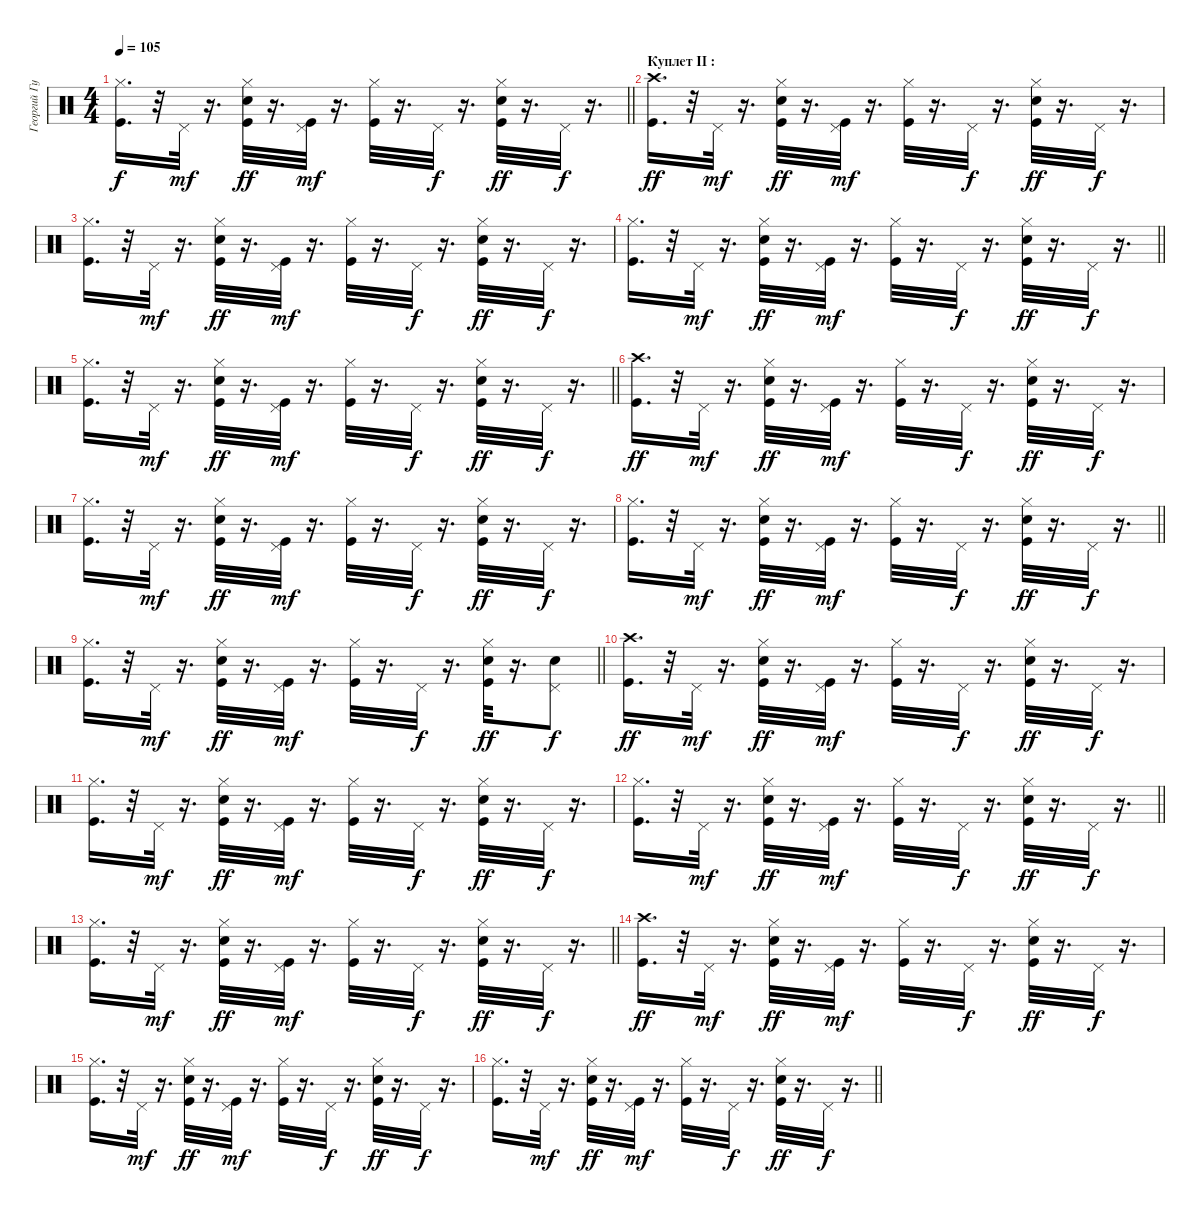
\track ("Георгий Гурьянов" "Георгий Гу") {instrument percussion}
\staff {score}
\articulation defaults
\ts (4 4)
\tempo 105
\clef neutral
\barLineRight lightlight
\ks c
("Hi-Hat (closed)" "Kick (hit)").16{d dy f} r.32 "Pedal Hi-Hat (hit)".32{dy mf} r.16{d} ("Hi-Hat (closed)" "Snare (hit) 2" "Kick (hit)").32{dy ff} r.16{d} ("Pedal Hi-Hat (hit)" "Kick (hit)").32{dy mf} r.16{d} ("Hi-Hat (closed)" "Kick (hit)").32 r.16{d} "Pedal Hi-Hat (hit)".32{dy f} r.16{d} ("Hi-Hat (closed)" "Snare (hit) 2" "Kick (hit)").32{dy ff} r.16{d} "Pedal Hi-Hat (hit)".32{dy f} r.16{d} |
\section ("" "Куплет II :")
("Crash high (hit)" "Kick (hit)").16{d dy ff} r.32 "Pedal Hi-Hat (hit)".32{dy mf} r.16{d} ("Hi-Hat (closed)" "Snare (hit) 2" "Kick (hit)").32{dy ff} r.16{d} ("Pedal Hi-Hat (hit)" "Kick (hit)").32{dy mf} r.16{d} ("Hi-Hat (closed)" "Kick (hit)").32 r.16{d} "Pedal Hi-Hat (hit)".32{dy f} r.16{d} ("Hi-Hat (closed)" "Snare (hit) 2" "Kick (hit)").32{dy ff} r.16{d} "Pedal Hi-Hat (hit)".32{dy f} r.16{d} |
("Hi-Hat (closed)" "Kick (hit)").16{d} r.32 "Pedal Hi-Hat (hit)".32{dy mf} r.16{d} ("Hi-Hat (closed)" "Snare (hit) 2" "Kick (hit)").32{dy ff} r.16{d} ("Pedal Hi-Hat (hit)" "Kick (hit)").32{dy mf} r.16{d} ("Hi-Hat (closed)" "Kick (hit)").32 r.16{d} "Pedal Hi-Hat (hit)".32{dy f} r.16{d} ("Hi-Hat (closed)" "Snare (hit) 2" "Kick (hit)").32{dy ff} r.16{d} "Pedal Hi-Hat (hit)".32{dy f} r.16{d} |
\barLineRight lightlight
("Hi-Hat (closed)" "Kick (hit)").16{d} r.32 "Pedal Hi-Hat (hit)".32{dy mf} r.16{d} ("Hi-Hat (closed)" "Snare (hit) 2" "Kick (hit)").32{dy ff} r.16{d} ("Pedal Hi-Hat (hit)" "Kick (hit)").32{dy mf} r.16{d} ("Hi-Hat (closed)" "Kick (hit)").32 r.16{d} "Pedal Hi-Hat (hit)".32{dy f} r.16{d} ("Hi-Hat (closed)" "Snare (hit) 2" "Kick (hit)").32{dy ff} r.16{d} "Pedal Hi-Hat (hit)".32{dy f} r.16{d} |
\barLineRight lightlight
("Hi-Hat (closed)" "Kick (hit)").16{d} r.32 "Pedal Hi-Hat (hit)".32{dy mf} r.16{d} ("Hi-Hat (closed)" "Snare (hit) 2" "Kick (hit)").32{dy ff} r.16{d} ("Pedal Hi-Hat (hit)" "Kick (hit)").32{dy mf} r.16{d} ("Hi-Hat (closed)" "Kick (hit)").32 r.16{d} "Pedal Hi-Hat (hit)".32{dy f} r.16{d} ("Hi-Hat (closed)" "Snare (hit) 2" "Kick (hit)").32{dy ff} r.16{d} "Pedal Hi-Hat (hit)".32{dy f} r.16{d} |
("Crash high (hit)" "Kick (hit)").16{d dy ff} r.32 "Pedal Hi-Hat (hit)".32{dy mf} r.16{d} ("Hi-Hat (closed)" "Snare (hit) 2" "Kick (hit)").32{dy ff} r.16{d} ("Pedal Hi-Hat (hit)" "Kick (hit)").32{dy mf} r.16{d} ("Hi-Hat (closed)" "Kick (hit)").32 r.16{d} "Pedal Hi-Hat (hit)".32{dy f} r.16{d} ("Hi-Hat (closed)" "Snare (hit) 2" "Kick (hit)").32{dy ff} r.16{d} "Pedal Hi-Hat (hit)".32{dy f} r.16{d} |
("Hi-Hat (closed)" "Kick (hit)").16{d} r.32 "Pedal Hi-Hat (hit)".32{dy mf} r.16{d} ("Hi-Hat (closed)" "Snare (hit) 2" "Kick (hit)").32{dy ff} r.16{d} ("Pedal Hi-Hat (hit)" "Kick (hit)").32{dy mf} r.16{d} ("Hi-Hat (closed)" "Kick (hit)").32 r.16{d} "Pedal Hi-Hat (hit)".32{dy f} r.16{d} ("Hi-Hat (closed)" "Snare (hit) 2" "Kick (hit)").32{dy ff} r.16{d} "Pedal Hi-Hat (hit)".32{dy f} r.16{d} |
\barLineRight lightlight
("Hi-Hat (closed)" "Kick (hit)").16{d} r.32 "Pedal Hi-Hat (hit)".32{dy mf} r.16{d} ("Hi-Hat (closed)" "Snare (hit) 2" "Kick (hit)").32{dy ff} r.16{d} ("Pedal Hi-Hat (hit)" "Kick (hit)").32{dy mf} r.16{d} ("Hi-Hat (closed)" "Kick (hit)").32 r.16{d} "Pedal Hi-Hat (hit)".32{dy f} r.16{d} ("Hi-Hat (closed)" "Snare (hit) 2" "Kick (hit)").32{dy ff} r.16{d} "Pedal Hi-Hat (hit)".32{dy f} r.16{d} |
\barLineRight lightlight
("Hi-Hat (closed)" "Kick (hit)").16{d} r.32 "Pedal Hi-Hat (hit)".32{dy mf} r.16{d} ("Hi-Hat (closed)" "Snare (hit) 2" "Kick (hit)").32{dy ff} r.16{d} ("Pedal Hi-Hat (hit)" "Kick (hit)").32{dy mf} r.16{d} ("Hi-Hat (closed)" "Kick (hit)").32 r.16{d} "Pedal Hi-Hat (hit)".32{dy f} r.16{d} ("Hi-Hat (closed)" "Snare (hit) 2" "Kick (hit)").32{dy ff} r.16{d} ("Pedal Hi-Hat (hit)" "Snare (hit) 2").8{dy f} |
("Crash high (hit)" "Kick (hit)").16{d dy ff} r.32 "Pedal Hi-Hat (hit)".32{dy mf} r.16{d} ("Hi-Hat (closed)" "Snare (hit) 2" "Kick (hit)").32{dy ff} r.16{d} ("Pedal Hi-Hat (hit)" "Kick (hit)").32{dy mf} r.16{d} ("Hi-Hat (closed)" "Kick (hit)").32 r.16{d} "Pedal Hi-Hat (hit)".32{dy f} r.16{d} ("Hi-Hat (closed)" "Snare (hit) 2" "Kick (hit)").32{dy ff} r.16{d} "Pedal Hi-Hat (hit)".32{dy f} r.16{d} |
("Hi-Hat (closed)" "Kick (hit)").16{d} r.32 "Pedal Hi-Hat (hit)".32{dy mf} r.16{d} ("Hi-Hat (closed)" "Snare (hit) 2" "Kick (hit)").32{dy ff} r.16{d} ("Pedal Hi-Hat (hit)" "Kick (hit)").32{dy mf} r.16{d} ("Hi-Hat (closed)" "Kick (hit)").32 r.16{d} "Pedal Hi-Hat (hit)".32{dy f} r.16{d} ("Hi-Hat (closed)" "Snare (hit) 2" "Kick (hit)").32{dy ff} r.16{d} "Pedal Hi-Hat (hit)".32{dy f} r.16{d} |
\barLineRight lightlight
("Hi-Hat (closed)" "Kick (hit)").16{d} r.32 "Pedal Hi-Hat (hit)".32{dy mf} r.16{d} ("Hi-Hat (closed)" "Snare (hit) 2" "Kick (hit)").32{dy ff} r.16{d} ("Pedal Hi-Hat (hit)" "Kick (hit)").32{dy mf} r.16{d} ("Hi-Hat (closed)" "Kick (hit)").32 r.16{d} "Pedal Hi-Hat (hit)".32{dy f} r.16{d} ("Hi-Hat (closed)" "Snare (hit) 2" "Kick (hit)").32{dy ff} r.16{d} "Pedal Hi-Hat (hit)".32{dy f} r.16{d} |
\barLineRight lightlight
("Hi-Hat (closed)" "Kick (hit)").16{d} r.32 "Pedal Hi-Hat (hit)".32{dy mf} r.16{d} ("Hi-Hat (closed)" "Snare (hit) 2" "Kick (hit)").32{dy ff} r.16{d} ("Pedal Hi-Hat (hit)" "Kick (hit)").32{dy mf} r.16{d} ("Hi-Hat (closed)" "Kick (hit)").32 r.16{d} "Pedal Hi-Hat (hit)".32{dy f} r.16{d} ("Hi-Hat (closed)" "Snare (hit) 2" "Kick (hit)").32{dy ff} r.16{d} "Pedal Hi-Hat (hit)".32{dy f} r.16{d} |
("Crash high (hit)" "Kick (hit)").16{d dy ff} r.32 "Pedal Hi-Hat (hit)".32{dy mf} r.16{d} ("Hi-Hat (closed)" "Snare (hit) 2" "Kick (hit)").32{dy ff} r.16{d} ("Pedal Hi-Hat (hit)" "Kick (hit)").32{dy mf} r.16{d} ("Hi-Hat (closed)" "Kick (hit)").32 r.16{d} "Pedal Hi-Hat (hit)".32{dy f} r.16{d} ("Hi-Hat (closed)" "Snare (hit) 2" "Kick (hit)").32{dy ff} r.16{d} "Pedal Hi-Hat (hit)".32{dy f} r.16{d} |
("Hi-Hat (closed)" "Kick (hit)").16{d} r.32 "Pedal Hi-Hat (hit)".32{dy mf} r.16{d} ("Hi-Hat (closed)" "Snare (hit) 2" "Kick (hit)").32{dy ff} r.16{d} ("Pedal Hi-Hat (hit)" "Kick (hit)").32{dy mf} r.16{d} ("Hi-Hat (closed)" "Kick (hit)").32 r.16{d} "Pedal Hi-Hat (hit)".32{dy f} r.16{d} ("Hi-Hat (closed)" "Snare (hit) 2" "Kick (hit)").32{dy ff} r.16{d} "Pedal Hi-Hat (hit)".32{dy f} r.16{d} |
\barLineRight lightlight
("Hi-Hat (closed)" "Kick (hit)").16{d} r.32 "Pedal Hi-Hat (hit)".32{dy mf} r.16{d} ("Hi-Hat (closed)" "Snare (hit) 2" "Kick (hit)").32{dy ff} r.16{d} ("Pedal Hi-Hat (hit)" "Kick (hit)").32{dy mf} r.16{d} ("Hi-Hat (closed)" "Kick (hit)").32 r.16{d} "Pedal Hi-Hat (hit)".32{dy f} r.16{d} ("Hi-Hat (closed)" "Snare (hit) 2" "Kick (hit)").32{dy ff} r.16{d} "Pedal Hi-Hat (hit)".32{dy f} r.16{d}
